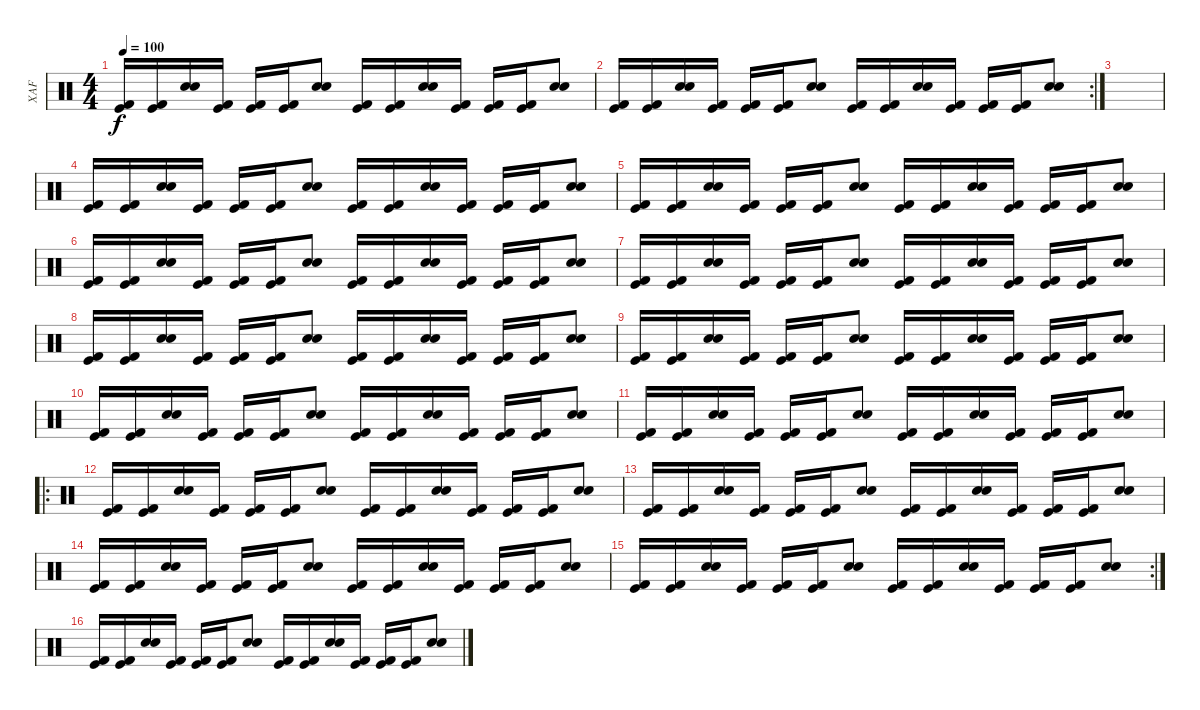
\track ("XAF" "XAF") {instrument percussion}
\staff {score}
\articulation defaults
\ts (4 4)
\tempo 100
\clef neutral
\ks c
("Kick (hit) 2" "Kick (hit)").16{dy f} ("Kick (hit) 2" "Kick (hit)").16 ("Electric Snare (hit)" "Snare (hit) 2").16 ("Kick (hit) 2" "Kick (hit)").16 ("Kick (hit) 2" "Kick (hit)").16 ("Kick (hit) 2" "Kick (hit)").16 ("Electric Snare (hit)" "Snare (hit) 2").8 ("Kick (hit) 2" "Kick (hit)").16 ("Kick (hit) 2" "Kick (hit)").16 ("Electric Snare (hit)" "Snare (hit) 2").16 ("Kick (hit) 2" "Kick (hit)").16 ("Kick (hit) 2" "Kick (hit)").16 ("Kick (hit) 2" "Kick (hit)").16 ("Electric Snare (hit)" "Snare (hit) 2").8 |
\rc 2
("Kick (hit) 2" "Kick (hit)").16 ("Kick (hit) 2" "Kick (hit)").16 ("Electric Snare (hit)" "Snare (hit) 2").16 ("Kick (hit) 2" "Kick (hit)").16 ("Kick (hit) 2" "Kick (hit)").16 ("Kick (hit) 2" "Kick (hit)").16 ("Electric Snare (hit)" "Snare (hit) 2").8 ("Kick (hit) 2" "Kick (hit)").16 ("Kick (hit) 2" "Kick (hit)").16 ("Electric Snare (hit)" "Snare (hit) 2").16 ("Kick (hit) 2" "Kick (hit)").16 ("Kick (hit) 2" "Kick (hit)").16 ("Kick (hit) 2" "Kick (hit)").16 ("Electric Snare (hit)" "Snare (hit) 2").8 |
|
("Kick (hit) 2" "Kick (hit)").16 ("Kick (hit) 2" "Kick (hit)").16 ("Electric Snare (hit)" "Snare (hit) 2").16 ("Kick (hit) 2" "Kick (hit)").16 ("Kick (hit) 2" "Kick (hit)").16 ("Kick (hit) 2" "Kick (hit)").16 ("Electric Snare (hit)" "Snare (hit) 2").8 ("Kick (hit) 2" "Kick (hit)").16 ("Kick (hit) 2" "Kick (hit)").16 ("Electric Snare (hit)" "Snare (hit) 2").16 ("Kick (hit) 2" "Kick (hit)").16 ("Kick (hit) 2" "Kick (hit)").16 ("Kick (hit) 2" "Kick (hit)").16 ("Electric Snare (hit)" "Snare (hit) 2").8 |
("Kick (hit) 2" "Kick (hit)").16 ("Kick (hit) 2" "Kick (hit)").16 ("Electric Snare (hit)" "Snare (hit) 2").16 ("Kick (hit) 2" "Kick (hit)").16 ("Kick (hit) 2" "Kick (hit)").16 ("Kick (hit) 2" "Kick (hit)").16 ("Electric Snare (hit)" "Snare (hit) 2").8 ("Kick (hit) 2" "Kick (hit)").16 ("Kick (hit) 2" "Kick (hit)").16 ("Electric Snare (hit)" "Snare (hit) 2").16 ("Kick (hit) 2" "Kick (hit)").16 ("Kick (hit) 2" "Kick (hit)").16 ("Kick (hit) 2" "Kick (hit)").16 ("Electric Snare (hit)" "Snare (hit) 2").8 |
("Kick (hit) 2" "Kick (hit)").16 ("Kick (hit) 2" "Kick (hit)").16 ("Electric Snare (hit)" "Snare (hit) 2").16 ("Kick (hit) 2" "Kick (hit)").16 ("Kick (hit) 2" "Kick (hit)").16 ("Kick (hit) 2" "Kick (hit)").16 ("Electric Snare (hit)" "Snare (hit) 2").8 ("Kick (hit) 2" "Kick (hit)").16 ("Kick (hit) 2" "Kick (hit)").16 ("Electric Snare (hit)" "Snare (hit) 2").16 ("Kick (hit) 2" "Kick (hit)").16 ("Kick (hit) 2" "Kick (hit)").16 ("Kick (hit) 2" "Kick (hit)").16 ("Electric Snare (hit)" "Snare (hit) 2").8 |
("Kick (hit) 2" "Kick (hit)").16 ("Kick (hit) 2" "Kick (hit)").16 ("Electric Snare (hit)" "Snare (hit) 2").16 ("Kick (hit) 2" "Kick (hit)").16 ("Kick (hit) 2" "Kick (hit)").16 ("Kick (hit) 2" "Kick (hit)").16 ("Electric Snare (hit)" "Snare (hit) 2").8 ("Kick (hit) 2" "Kick (hit)").16 ("Kick (hit) 2" "Kick (hit)").16 ("Electric Snare (hit)" "Snare (hit) 2").16 ("Kick (hit) 2" "Kick (hit)").16 ("Kick (hit) 2" "Kick (hit)").16 ("Kick (hit) 2" "Kick (hit)").16 ("Electric Snare (hit)" "Snare (hit) 2").8 |
("Kick (hit) 2" "Kick (hit)").16 ("Kick (hit) 2" "Kick (hit)").16 ("Electric Snare (hit)" "Snare (hit) 2").16 ("Kick (hit) 2" "Kick (hit)").16 ("Kick (hit) 2" "Kick (hit)").16 ("Kick (hit) 2" "Kick (hit)").16 ("Electric Snare (hit)" "Snare (hit) 2").8 ("Kick (hit) 2" "Kick (hit)").16 ("Kick (hit) 2" "Kick (hit)").16 ("Electric Snare (hit)" "Snare (hit) 2").16 ("Kick (hit) 2" "Kick (hit)").16 ("Kick (hit) 2" "Kick (hit)").16 ("Kick (hit) 2" "Kick (hit)").16 ("Electric Snare (hit)" "Snare (hit) 2").8 |
("Kick (hit) 2" "Kick (hit)").16 ("Kick (hit) 2" "Kick (hit)").16 ("Electric Snare (hit)" "Snare (hit) 2").16 ("Kick (hit) 2" "Kick (hit)").16 ("Kick (hit) 2" "Kick (hit)").16 ("Kick (hit) 2" "Kick (hit)").16 ("Electric Snare (hit)" "Snare (hit) 2").8 ("Kick (hit) 2" "Kick (hit)").16 ("Kick (hit) 2" "Kick (hit)").16 ("Electric Snare (hit)" "Snare (hit) 2").16 ("Kick (hit) 2" "Kick (hit)").16 ("Kick (hit) 2" "Kick (hit)").16 ("Kick (hit) 2" "Kick (hit)").16 ("Electric Snare (hit)" "Snare (hit) 2").8 |
("Kick (hit) 2" "Kick (hit)").16 ("Kick (hit) 2" "Kick (hit)").16 ("Electric Snare (hit)" "Snare (hit) 2").16 ("Kick (hit) 2" "Kick (hit)").16 ("Kick (hit) 2" "Kick (hit)").16 ("Kick (hit) 2" "Kick (hit)").16 ("Electric Snare (hit)" "Snare (hit) 2").8 ("Kick (hit) 2" "Kick (hit)").16 ("Kick (hit) 2" "Kick (hit)").16 ("Electric Snare (hit)" "Snare (hit) 2").16 ("Kick (hit) 2" "Kick (hit)").16 ("Kick (hit) 2" "Kick (hit)").16 ("Kick (hit) 2" "Kick (hit)").16 ("Electric Snare (hit)" "Snare (hit) 2").8 |
("Kick (hit) 2" "Kick (hit)").16 ("Kick (hit) 2" "Kick (hit)").16 ("Electric Snare (hit)" "Snare (hit) 2").16 ("Kick (hit) 2" "Kick (hit)").16 ("Kick (hit) 2" "Kick (hit)").16 ("Kick (hit) 2" "Kick (hit)").16 ("Electric Snare (hit)" "Snare (hit) 2").8 ("Kick (hit) 2" "Kick (hit)").16 ("Kick (hit) 2" "Kick (hit)").16 ("Electric Snare (hit)" "Snare (hit) 2").16 ("Kick (hit) 2" "Kick (hit)").16 ("Kick (hit) 2" "Kick (hit)").16 ("Kick (hit) 2" "Kick (hit)").16 ("Electric Snare (hit)" "Snare (hit) 2").8 |
\ro
("Kick (hit) 2" "Kick (hit)").16 ("Kick (hit) 2" "Kick (hit)").16 ("Electric Snare (hit)" "Snare (hit) 2").16 ("Kick (hit) 2" "Kick (hit)").16 ("Kick (hit) 2" "Kick (hit)").16 ("Kick (hit) 2" "Kick (hit)").16 ("Electric Snare (hit)" "Snare (hit) 2").8 ("Kick (hit) 2" "Kick (hit)").16 ("Kick (hit) 2" "Kick (hit)").16 ("Electric Snare (hit)" "Snare (hit) 2").16 ("Kick (hit) 2" "Kick (hit)").16 ("Kick (hit) 2" "Kick (hit)").16 ("Kick (hit) 2" "Kick (hit)").16 ("Electric Snare (hit)" "Snare (hit) 2").8 |
("Kick (hit) 2" "Kick (hit)").16 ("Kick (hit) 2" "Kick (hit)").16 ("Electric Snare (hit)" "Snare (hit) 2").16 ("Kick (hit) 2" "Kick (hit)").16 ("Kick (hit) 2" "Kick (hit)").16 ("Kick (hit) 2" "Kick (hit)").16 ("Electric Snare (hit)" "Snare (hit) 2").8 ("Kick (hit) 2" "Kick (hit)").16 ("Kick (hit) 2" "Kick (hit)").16 ("Electric Snare (hit)" "Snare (hit) 2").16 ("Kick (hit) 2" "Kick (hit)").16 ("Kick (hit) 2" "Kick (hit)").16 ("Kick (hit) 2" "Kick (hit)").16 ("Electric Snare (hit)" "Snare (hit) 2").8 |
("Kick (hit) 2" "Kick (hit)").16 ("Kick (hit) 2" "Kick (hit)").16 ("Electric Snare (hit)" "Snare (hit) 2").16 ("Kick (hit) 2" "Kick (hit)").16 ("Kick (hit) 2" "Kick (hit)").16 ("Kick (hit) 2" "Kick (hit)").16 ("Electric Snare (hit)" "Snare (hit) 2").8 ("Kick (hit) 2" "Kick (hit)").16 ("Kick (hit) 2" "Kick (hit)").16 ("Electric Snare (hit)" "Snare (hit) 2").16 ("Kick (hit) 2" "Kick (hit)").16 ("Kick (hit) 2" "Kick (hit)").16 ("Kick (hit) 2" "Kick (hit)").16 ("Electric Snare (hit)" "Snare (hit) 2").8 |
\rc 2
("Kick (hit) 2" "Kick (hit)").16 ("Kick (hit) 2" "Kick (hit)").16 ("Electric Snare (hit)" "Snare (hit) 2").16 ("Kick (hit) 2" "Kick (hit)").16 ("Kick (hit) 2" "Kick (hit)").16 ("Kick (hit) 2" "Kick (hit)").16 ("Electric Snare (hit)" "Snare (hit) 2").8 ("Kick (hit) 2" "Kick (hit)").16 ("Kick (hit) 2" "Kick (hit)").16 ("Electric Snare (hit)" "Snare (hit) 2").16 ("Kick (hit) 2" "Kick (hit)").16 ("Kick (hit) 2" "Kick (hit)").16 ("Kick (hit) 2" "Kick (hit)").16 ("Electric Snare (hit)" "Snare (hit) 2").8 |
("Kick (hit) 2" "Kick (hit)").16 ("Kick (hit) 2" "Kick (hit)").16 ("Electric Snare (hit)" "Snare (hit) 2").16 ("Kick (hit) 2" "Kick (hit)").16 ("Kick (hit) 2" "Kick (hit)").16 ("Kick (hit) 2" "Kick (hit)").16 ("Electric Snare (hit)" "Snare (hit) 2").8 ("Kick (hit) 2" "Kick (hit)").16 ("Kick (hit) 2" "Kick (hit)").16 ("Electric Snare (hit)" "Snare (hit) 2").16 ("Kick (hit) 2" "Kick (hit)").16 ("Kick (hit) 2" "Kick (hit)").16 ("Kick (hit) 2" "Kick (hit)").16 ("Electric Snare (hit)" "Snare (hit) 2").8
